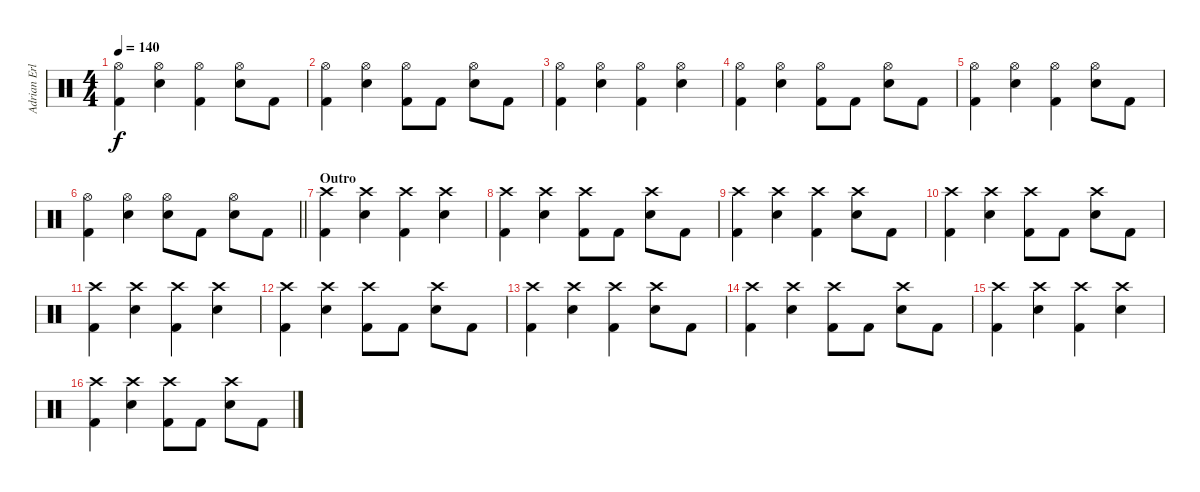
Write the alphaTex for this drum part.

\track ("Adrian Erlandsson" "Adrian Erl") {instrument percussion}
\staff {score}
\articulation defaults
\ts (4 4)
\tempo 140
\clef neutral
\ks c
("Hi-Hat (open)" "Kick (hit) 2").4{dy f} ("Hi-Hat (open)" "Snare (hit) 2").4 ("Hi-Hat (open)" "Kick (hit) 2").4 ("Hi-Hat (open)" "Snare (hit) 2").8 "Kick (hit) 2".8 |
("Hi-Hat (open)" "Kick (hit) 2").4 ("Hi-Hat (open)" "Snare (hit) 2").4 ("Hi-Hat (open)" "Kick (hit) 2").8 "Kick (hit) 2".8 ("Hi-Hat (open)" "Snare (hit) 2").8 "Kick (hit) 2".8 |
("Hi-Hat (open)" "Kick (hit) 2").4 ("Hi-Hat (open)" "Snare (hit) 2").4 ("Hi-Hat (open)" "Kick (hit) 2").4 ("Hi-Hat (open)" "Snare (hit) 2").4 |
("Hi-Hat (open)" "Kick (hit) 2").4 ("Hi-Hat (open)" "Snare (hit) 2").4 ("Hi-Hat (open)" "Kick (hit) 2").8 "Kick (hit) 2".8 ("Hi-Hat (open)" "Snare (hit) 2").8 "Kick (hit) 2".8 |
("Hi-Hat (open)" "Kick (hit) 2").4 ("Hi-Hat (open)" "Snare (hit) 2").4 ("Hi-Hat (open)" "Kick (hit) 2").4 ("Hi-Hat (open)" "Snare (hit) 2").8 "Kick (hit) 2".8 |
\barLineRight lightlight
("Hi-Hat (open)" "Kick (hit) 2").4 ("Hi-Hat (open)" "Snare (hit) 2").4 ("Hi-Hat (open)" "Snare (hit) 2").8 "Kick (hit) 2".8 ("Hi-Hat (open)" "Snare (hit) 2").8 "Kick (hit) 2".8 |
\section ("" "Outro")
("Crash high (hit)" "Kick (hit) 2").4 ("Crash high (hit)" "Snare (hit) 2").4 ("Crash high (hit)" "Kick (hit) 2").4 ("Crash high (hit)" "Snare (hit) 2").4 |
("Crash high (hit)" "Kick (hit) 2").4 ("Crash high (hit)" "Snare (hit) 2").4 ("Crash high (hit)" "Kick (hit) 2").8 "Kick (hit) 2".8 ("Crash high (hit)" "Snare (hit) 2").8 "Kick (hit) 2".8 |
("Crash high (hit)" "Kick (hit) 2").4 ("Crash high (hit)" "Snare (hit) 2").4 ("Crash high (hit)" "Kick (hit) 2").4 ("Crash high (hit)" "Snare (hit) 2").8 "Kick (hit) 2".8 |
("Crash high (hit)" "Kick (hit) 2").4 ("Crash high (hit)" "Snare (hit) 2").4 ("Crash high (hit)" "Kick (hit) 2").8 "Kick (hit) 2".8 ("Crash high (hit)" "Snare (hit) 2").8 "Kick (hit) 2".8 |
("Crash high (hit)" "Kick (hit) 2").4 ("Crash high (hit)" "Snare (hit) 2").4 ("Crash high (hit)" "Kick (hit) 2").4 ("Crash high (hit)" "Snare (hit) 2").4 |
("Crash high (hit)" "Kick (hit) 2").4 ("Crash high (hit)" "Snare (hit) 2").4 ("Crash high (hit)" "Kick (hit) 2").8 "Kick (hit) 2".8 ("Crash high (hit)" "Snare (hit) 2").8 "Kick (hit) 2".8 |
("Crash high (hit)" "Kick (hit) 2").4 ("Crash high (hit)" "Snare (hit) 2").4 ("Crash high (hit)" "Kick (hit) 2").4 ("Crash high (hit)" "Snare (hit) 2").8 "Kick (hit) 2".8 |
("Crash high (hit)" "Kick (hit) 2").4 ("Crash high (hit)" "Snare (hit) 2").4 ("Crash high (hit)" "Kick (hit) 2").8 "Kick (hit) 2".8 ("Crash high (hit)" "Snare (hit) 2").8 "Kick (hit) 2".8 |
("Crash high (hit)" "Kick (hit) 2").4 ("Crash high (hit)" "Snare (hit) 2").4 ("Crash high (hit)" "Kick (hit) 2").4 ("Crash high (hit)" "Snare (hit) 2").4 |
("Crash high (hit)" "Kick (hit) 2").4 ("Crash high (hit)" "Snare (hit) 2").4 ("Crash high (hit)" "Kick (hit) 2").8 "Kick (hit) 2".8 ("Crash high (hit)" "Snare (hit) 2").8 "Kick (hit) 2".8
